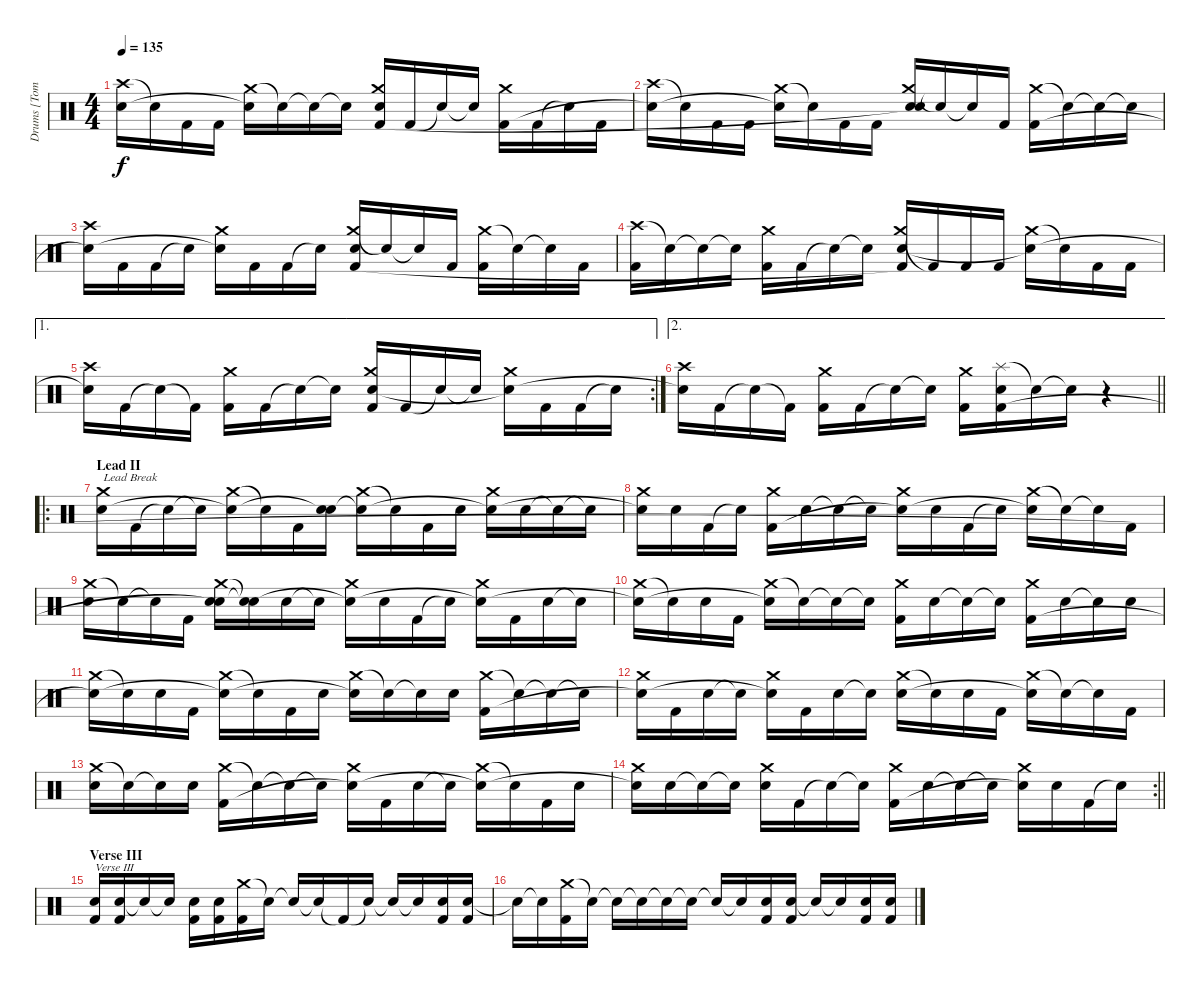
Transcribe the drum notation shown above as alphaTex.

\track ("Drums [Tomas Haake]" "Drums [Tom") {instrument percussion}
\staff {score}
\articulation defaults
\ts (4 4)
\tempo 135
\clef neutral
\ks c
("Crash high (hit)" "Snare (hit)"{t}).16{dy f} "Snare (hit)"{t}.16 "Kick (hit) 2".16 "Kick (hit) 2".16 ("Crash medium (hit)" "Snare (hit)"{t}).16 "Snare (hit)"{t}.16 "Snare (hit)"{t}.16 "Snare (hit)"{t}.16 ("Crash medium (hit)" "Electric Snare (hit)" "Kick (hit) 2").16 "Kick (hit) 2".16 "Snare (hit)"{t}.16 "Snare (hit)"{t}.16 ("Crash medium (hit)" "Kick (hit) 2").16 "Kick (hit) 2".16 "Snare (hit)"{t}.16 "Kick (hit) 2".16 |
("Crash high (hit)" "Snare (hit)"{t}).16 "Snare (hit)"{t}.16 "Kick (hit) 2".16 "Kick (hit) 2".16 ("Crash medium (hit)" "Snare (hit)"{t}).16 "Snare (hit)"{t}.16 "Kick (hit) 2".16 "Kick (hit) 2".16 ("Crash medium (hit)" "Electric Snare (hit)" "Snare (hit)"{t}).16 "Snare (hit)"{t}.16 "Snare (hit)"{t}.16 "Kick (hit) 2".16 ("Crash medium (hit)" "Kick (hit) 2").16 "Snare (hit)"{t}.16 "Snare (hit)"{t}.16 "Snare (hit)"{t}.16 |
("Crash high (hit)" "Snare (hit)"{t}).16 "Kick (hit) 2".16 "Kick (hit) 2".16 "Snare (hit)"{t}.16 ("Crash medium (hit)" "Snare (hit)"{t}).16 "Kick (hit) 2".16 "Kick (hit) 2".16 "Snare (hit)"{t}.16 ("Crash medium (hit)" "Electric Snare (hit)" "Kick (hit) 2").16 "Snare (hit)"{t}.16 "Snare (hit)"{t}.16 "Kick (hit) 2".16 ("Crash medium (hit)" "Kick (hit) 2").16 "Snare (hit)"{t}.16 "Snare (hit)"{t}.16 "Kick (hit) 2".16 |
("Crash high (hit)" "Kick (hit) 2").16 "Snare (hit)"{t}.16 "Snare (hit)"{t}.16 "Snare (hit)"{t}.16 ("Crash medium (hit)" "Kick (hit) 2").16 "Kick (hit) 2".16 "Snare (hit)"{t}.16 "Snare (hit)"{t}.16 ("Crash medium (hit)" "Electric Snare (hit)" "Kick (hit) 2"{t}).16 "Kick (hit) 2"{t}.16 "Kick (hit) 2".16 "Kick (hit) 2".16 ("Crash medium (hit)" "Snare (hit)"{t}).16 "Snare (hit)"{t}.16 "Kick (hit) 2".16 "Kick (hit) 2".16 |
\ae 1
\rc 2
("Crash high (hit)" "Snare (hit)"{t}).16 "Kick (hit) 2".16 "Snare (hit)"{t}.16 "Kick (hit) 2"{t}.16 ("Crash medium (hit)" "Kick (hit) 2").16 "Kick (hit) 2".16 "Snare (hit)"{t}.16 "Snare (hit)"{t}.16 ("Crash medium (hit)" "Electric Snare (hit)" "Kick (hit) 2").16 "Kick (hit) 2".16 "Snare (hit)"{t}.16 "Snare (hit)"{t}.16 ("Crash medium (hit)" "Snare (hit)"{t}).16 "Kick (hit) 2".16 "Kick (hit) 2".16 "Snare (hit)"{t}.16 |
\ae 2
\barLineRight lightlight
("Crash high (hit)" "Snare (hit)"{t}).16 "Kick (hit) 2".16 "Snare (hit)"{t}.16 "Kick (hit) 2"{t}.16 ("Crash medium (hit)" "Kick (hit) 2").16 "Kick (hit) 2".16 "Snare (hit)"{t}.16 "Snare (hit)"{t}.16 ("Crash medium (hit)" "Kick (hit) 2").16 ("Splash (hit)" "Electric Snare (hit)" "Kick (hit) 2").16 "Snare (hit)"{t}.16 "Snare (hit)"{t}.16 r.4 |
\ro
\section ("" "Lead II")
("Crash medium (hit)" "Electric Snare (hit)").16{txt "Lead Break"} "Kick (hit) 2".16 "Snare (hit)"{t}.16 "Snare (hit)"{t}.16 ("Crash medium (hit)" "Snare (hit)"{t}).16 "Snare (hit)"{t}.16 "Kick (hit) 2".16 ("Electric Snare (hit)" "Snare (hit)"{t}).16 ("Crash medium (hit)" "Snare (hit)"{t}).16 "Snare (hit)"{t}.16 "Kick (hit) 2".16 "Electric Snare (hit)".16 ("Crash medium (hit)" "Snare (hit)"{t}).16 "Electric Snare (hit)".16 "Snare (hit)"{t}.16 "Snare (hit)"{t}.16 |
("Crash medium (hit)" "Electric Snare (hit)"{t}).16 "Electric Snare (hit)".16 "Kick (hit) 2".16 "Snare (hit)"{t}.16 ("Crash medium (hit)" "Kick (hit) 2").16 "Electric Snare (hit)".16 "Snare (hit)"{t}.16 "Snare (hit)"{t}.16 ("Crash medium (hit)" "Snare (hit)"{t}).16 "Electric Snare (hit)".16 "Kick (hit) 2".16 "Snare (hit)"{t}.16 ("Crash medium (hit)" "Snare (hit)"{t}).16 "Snare (hit)"{t}.16 "Snare (hit)"{t}.16 "Kick (hit) 2".16 |
("Crash medium (hit)" "Electric Snare (hit)").16 "Snare (hit)"{t}.16 "Snare (hit)"{t}.16 "Kick (hit) 2".16 ("Crash medium (hit)" "Electric Snare (hit)" "Snare (hit)"{t}).16 ("Snare (hit)"{t} "Snare (hit)"{t}).16 "Electric Snare (hit)".16 "Snare (hit)"{t}.16 ("Crash medium (hit)" "Snare (hit)"{t}).16 "Electric Snare (hit)".16 "Kick (hit) 2".16 "Snare (hit)"{t}.16 ("Crash medium (hit)" "Snare (hit)"{t}).16 "Kick (hit) 2".16 "Electric Snare (hit)".16 "Snare (hit)"{t}.16 |
("Crash medium (hit)" "Snare (hit)"{t}).16 "Snare (hit)"{t}.16 "Electric Snare (hit)".16 "Kick (hit) 2".16 ("Crash medium (hit)" "Snare (hit)"{t}).16 "Snare (hit)"{t}.16 "Snare (hit)"{t}.16 "Snare (hit)"{t}.16 ("Crash medium (hit)" "Kick (hit) 2").16 "Electric Snare (hit)".16 "Snare (hit)"{t}.16 "Snare (hit)"{t}.16 ("Crash medium (hit)" "Kick (hit) 2").16 "Electric Snare (hit)".16 "Snare (hit)"{t}.16 "Electric Snare (hit)".16 |
("Crash medium (hit)" "Snare (hit)"{t}).16 "Snare (hit)"{t}.16 "Electric Snare (hit)".16 "Kick (hit) 2".16 ("Crash medium (hit)" "Snare (hit)"{t}).16 "Snare (hit)"{t}.16 "Kick (hit) 2".16 "Electric Snare (hit)".16 ("Crash medium (hit)" "Snare (hit)"{t}).16 "Snare (hit)"{t}.16 "Snare (hit)"{t}.16 "Electric Snare (hit)".16 ("Crash medium (hit)" "Kick (hit) 2").16 "Snare (hit)"{t}.16 "Snare (hit)"{t}.16 "Snare (hit)"{t}.16 |
("Crash medium (hit)" "Snare (hit)"{t}).16 "Kick (hit) 2".16 "Electric Snare (hit)".16 "Snare (hit)"{t}.16 ("Crash medium (hit)" "Snare (hit)"{t}).16 "Kick (hit) 2".16 "Electric Snare (hit)".16 "Snare (hit)"{t}.16 ("Crash medium (hit)" "Electric Snare (hit)").16 "Snare (hit)"{t}.16 "Electric Snare (hit)".16 "Kick (hit) 2".16 ("Crash medium (hit)" "Snare (hit)"{t}).16 "Snare (hit)"{t}.16 "Snare (hit)"{t}.16 "Kick (hit) 2".16 |
("Crash medium (hit)" "Electric Snare (hit)").16 "Snare (hit)"{t}.16 "Snare (hit)"{t}.16 "Electric Snare (hit)".16 ("Crash medium (hit)" "Kick (hit) 2").16 "Snare (hit)"{t}.16 "Snare (hit)"{t}.16 "Snare (hit)"{t}.16 ("Crash medium (hit)" "Snare (hit)"{t}).16 "Kick (hit) 2".16 "Electric Snare (hit)".16 "Snare (hit)"{t}.16 ("Crash medium (hit)" "Snare (hit)"{t}).16 "Snare (hit)"{t}.16 "Kick (hit) 2".16 "Electric Snare (hit)".16 |
\rc 2
\barLineRight lightlight
("Crash medium (hit)" "Snare (hit)"{t}).16 "Electric Snare (hit)".16 "Snare (hit)"{t}.16 "Snare (hit)"{t}.16 ("Crash medium (hit)" "Electric Snare (hit)").16 "Kick (hit) 2".16 "Snare (hit)"{t}.16 "Snare (hit)"{t}.16 ("Crash medium (hit)" "Kick (hit) 2").16 "Electric Snare (hit)".16 "Snare (hit)"{t}.16 "Snare (hit)"{t}.16 ("Crash medium (hit)" "Snare (hit)"{t}).16 "Electric Snare (hit)".16 "Kick (hit) 2".16 "Snare (hit)"{t}.16 |
\section ("" "Verse III")
("Electric Snare (hit)" "Kick (hit) 2").16{txt "Verse III"} ("Electric Snare (hit)" "Kick (hit) 2").16 "Snare (hit)"{t}.16 "Snare (hit)"{t}.16 ("Electric Snare (hit)" "Kick (hit) 2").16 ("Electric Snare (hit)" "Kick (hit) 2").16 ("Crash medium (hit)" "Kick (hit) 2").16 "Snare (hit)"{t}.16 "Snare (hit)"{t}.16 "Snare (hit)"{t}.16 "Kick (hit) 2"{t}.16 "Snare (hit)"{t}.16 "Snare (hit)"{t}.16 "Snare (hit)"{t}.16 ("Electric Snare (hit)" "Kick (hit) 2").16 ("Electric Snare (hit)" "Kick (hit) 2").16 |
"Snare (hit)"{t}.16 "Snare (hit)"{t}.16 ("Crash medium (hit)" "Kick (hit) 2").16 "Snare (hit)"{t}.16 "Snare (hit)"{t}.16 "Snare (hit)"{t}.16 "Snare (hit)"{t}.16 "Snare (hit)"{t}.16 "Snare (hit)"{t}.16 "Snare (hit)"{t}.16 ("Electric Snare (hit)" "Kick (hit) 2").16 ("Electric Snare (hit)" "Kick (hit) 2").16 "Snare (hit)"{t}.16 "Snare (hit)"{t}.16 ("Electric Snare (hit)" "Kick (hit) 2").16 ("Electric Snare (hit)" "Kick (hit) 2").16
